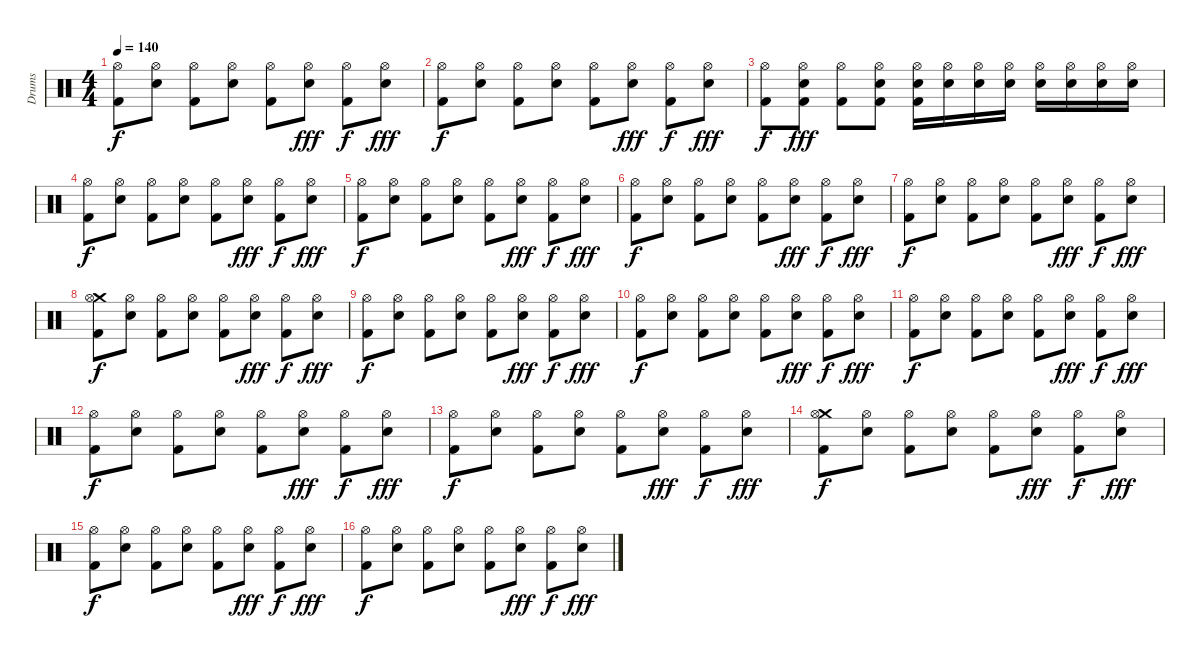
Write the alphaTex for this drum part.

\track ("Drums" "Drums") {instrument percussion}
\staff {score}
\articulation defaults
\ts (4 4)
\tempo 140
\clef neutral
\ks c
("Hi-Hat (open)" "Kick (hit) 2").8{dy f} ("Hi-Hat (open)" "Electric Snare (hit)").8 ("Hi-Hat (open)" "Kick (hit) 2").8 ("Hi-Hat (open)" "Electric Snare (hit)").8 ("Hi-Hat (open)" "Kick (hit) 2").8 ("Hi-Hat (open)" "Electric Snare (hit)").8{dy fff} ("Hi-Hat (open)" "Kick (hit) 2").8{dy f} ("Hi-Hat (open)" "Electric Snare (hit)").8{dy fff} |
("Hi-Hat (open)" "Kick (hit) 2").8{dy f} ("Hi-Hat (open)" "Electric Snare (hit)").8 ("Hi-Hat (open)" "Kick (hit) 2").8 ("Hi-Hat (open)" "Electric Snare (hit)").8 ("Hi-Hat (open)" "Kick (hit) 2").8 ("Hi-Hat (open)" "Electric Snare (hit)").8{dy fff} ("Hi-Hat (open)" "Kick (hit) 2").8{dy f} ("Hi-Hat (open)" "Electric Snare (hit)").8{dy fff} |
("Hi-Hat (open)" "Kick (hit) 2").8{dy f} ("Hi-Hat (open)" "Electric Snare (hit)" "Kick (hit) 2").8{dy fff} ("Hi-Hat (open)" "Kick (hit) 2").8 ("Hi-Hat (open)" "Electric Snare (hit)" "Kick (hit) 2").8 ("Hi-Hat (open)" "Electric Snare (hit)" "Kick (hit) 2").16 ("Hi-Hat (open)" "Electric Snare (hit)").16 ("Hi-Hat (open)" "Electric Snare (hit)").16 ("Hi-Hat (open)" "Electric Snare (hit)").16 ("Hi-Hat (open)" "Electric Snare (hit)").16 ("Hi-Hat (open)" "Electric Snare (hit)").16 ("Hi-Hat (open)" "Electric Snare (hit)").16 ("Hi-Hat (open)" "Electric Snare (hit)").16 |
("Hi-Hat (open)" "Kick (hit) 2").8{dy f} ("Hi-Hat (open)" "Electric Snare (hit)").8 ("Hi-Hat (open)" "Kick (hit) 2").8 ("Hi-Hat (open)" "Electric Snare (hit)").8 ("Hi-Hat (open)" "Kick (hit) 2").8 ("Hi-Hat (open)" "Electric Snare (hit)").8{dy fff} ("Hi-Hat (open)" "Kick (hit) 2").8{dy f} ("Hi-Hat (open)" "Electric Snare (hit)").8{dy fff} |
("Hi-Hat (open)" "Kick (hit) 2").8{dy f} ("Hi-Hat (open)" "Electric Snare (hit)").8 ("Hi-Hat (open)" "Kick (hit) 2").8 ("Hi-Hat (open)" "Electric Snare (hit)").8 ("Hi-Hat (open)" "Kick (hit) 2").8 ("Hi-Hat (open)" "Electric Snare (hit)").8{dy fff} ("Hi-Hat (open)" "Kick (hit) 2").8{dy f} ("Hi-Hat (open)" "Electric Snare (hit)").8{dy fff} |
("Hi-Hat (open)" "Kick (hit) 2").8{dy f} ("Hi-Hat (open)" "Electric Snare (hit)").8 ("Hi-Hat (open)" "Kick (hit) 2").8 ("Hi-Hat (open)" "Electric Snare (hit)").8 ("Hi-Hat (open)" "Kick (hit) 2").8 ("Hi-Hat (open)" "Electric Snare (hit)").8{dy fff} ("Hi-Hat (open)" "Kick (hit) 2").8{dy f} ("Hi-Hat (open)" "Electric Snare (hit)").8{dy fff} |
("Hi-Hat (open)" "Kick (hit) 2").8{dy f} ("Hi-Hat (open)" "Electric Snare (hit)").8 ("Hi-Hat (open)" "Kick (hit) 2").8 ("Hi-Hat (open)" "Electric Snare (hit)").8 ("Hi-Hat (open)" "Kick (hit) 2").8 ("Hi-Hat (open)" "Electric Snare (hit)").8{dy fff} ("Hi-Hat (open)" "Kick (hit) 2").8{dy f} ("Hi-Hat (open)" "Electric Snare (hit)").8{dy fff} |
("Crash medium (hit)" "Hi-Hat (open)" "Kick (hit) 2").8{dy f} ("Hi-Hat (open)" "Electric Snare (hit)").8 ("Hi-Hat (open)" "Kick (hit) 2").8 ("Hi-Hat (open)" "Electric Snare (hit)").8 ("Hi-Hat (open)" "Kick (hit) 2").8 ("Hi-Hat (open)" "Electric Snare (hit)").8{dy fff} ("Hi-Hat (open)" "Kick (hit) 2").8{dy f} ("Hi-Hat (open)" "Electric Snare (hit)").8{dy fff} |
("Hi-Hat (open)" "Kick (hit) 2").8{dy f} ("Hi-Hat (open)" "Electric Snare (hit)").8 ("Hi-Hat (open)" "Kick (hit) 2").8 ("Hi-Hat (open)" "Electric Snare (hit)").8 ("Hi-Hat (open)" "Kick (hit) 2").8 ("Hi-Hat (open)" "Electric Snare (hit)").8{dy fff} ("Hi-Hat (open)" "Kick (hit) 2").8{dy f} ("Hi-Hat (open)" "Electric Snare (hit)").8{dy fff} |
("Hi-Hat (open)" "Kick (hit) 2").8{dy f} ("Hi-Hat (open)" "Electric Snare (hit)").8 ("Hi-Hat (open)" "Kick (hit) 2").8 ("Hi-Hat (open)" "Electric Snare (hit)").8 ("Hi-Hat (open)" "Kick (hit) 2").8 ("Hi-Hat (open)" "Electric Snare (hit)").8{dy fff} ("Hi-Hat (open)" "Kick (hit) 2").8{dy f} ("Hi-Hat (open)" "Electric Snare (hit)").8{dy fff} |
("Hi-Hat (open)" "Kick (hit) 2").8{dy f} ("Hi-Hat (open)" "Electric Snare (hit)").8 ("Hi-Hat (open)" "Kick (hit) 2").8 ("Hi-Hat (open)" "Electric Snare (hit)").8 ("Hi-Hat (open)" "Kick (hit) 2").8 ("Hi-Hat (open)" "Electric Snare (hit)").8{dy fff} ("Hi-Hat (open)" "Kick (hit) 2").8{dy f} ("Hi-Hat (open)" "Electric Snare (hit)").8{dy fff} |
("Hi-Hat (open)" "Kick (hit) 2").8{dy f} ("Hi-Hat (open)" "Electric Snare (hit)").8 ("Hi-Hat (open)" "Kick (hit) 2").8 ("Hi-Hat (open)" "Electric Snare (hit)").8 ("Hi-Hat (open)" "Kick (hit) 2").8 ("Hi-Hat (open)" "Electric Snare (hit)").8{dy fff} ("Hi-Hat (open)" "Kick (hit) 2").8{dy f} ("Hi-Hat (open)" "Electric Snare (hit)").8{dy fff} |
("Hi-Hat (open)" "Kick (hit) 2").8{dy f} ("Hi-Hat (open)" "Electric Snare (hit)").8 ("Hi-Hat (open)" "Kick (hit) 2").8 ("Hi-Hat (open)" "Electric Snare (hit)").8 ("Hi-Hat (open)" "Kick (hit) 2").8 ("Hi-Hat (open)" "Electric Snare (hit)").8{dy fff} ("Hi-Hat (open)" "Kick (hit) 2").8{dy f} ("Hi-Hat (open)" "Electric Snare (hit)").8{dy fff} |
("Crash medium (hit)" "Hi-Hat (open)" "Kick (hit) 2").8{dy f} ("Hi-Hat (open)" "Electric Snare (hit)").8 ("Hi-Hat (open)" "Kick (hit) 2").8 ("Hi-Hat (open)" "Electric Snare (hit)").8 ("Hi-Hat (open)" "Kick (hit) 2").8 ("Hi-Hat (open)" "Electric Snare (hit)").8{dy fff} ("Hi-Hat (open)" "Kick (hit) 2").8{dy f} ("Hi-Hat (open)" "Electric Snare (hit)").8{dy fff} |
("Hi-Hat (open)" "Kick (hit) 2").8{dy f} ("Hi-Hat (open)" "Electric Snare (hit)").8 ("Hi-Hat (open)" "Kick (hit) 2").8 ("Hi-Hat (open)" "Electric Snare (hit)").8 ("Hi-Hat (open)" "Kick (hit) 2").8 ("Hi-Hat (open)" "Electric Snare (hit)").8{dy fff} ("Hi-Hat (open)" "Kick (hit) 2").8{dy f} ("Hi-Hat (open)" "Electric Snare (hit)").8{dy fff} |
("Hi-Hat (open)" "Kick (hit) 2").8{dy f} ("Hi-Hat (open)" "Electric Snare (hit)").8 ("Hi-Hat (open)" "Kick (hit) 2").8 ("Hi-Hat (open)" "Electric Snare (hit)").8 ("Hi-Hat (open)" "Kick (hit) 2").8 ("Hi-Hat (open)" "Electric Snare (hit)").8{dy fff} ("Hi-Hat (open)" "Kick (hit) 2").8{dy f} ("Hi-Hat (open)" "Electric Snare (hit)").8{dy fff}
